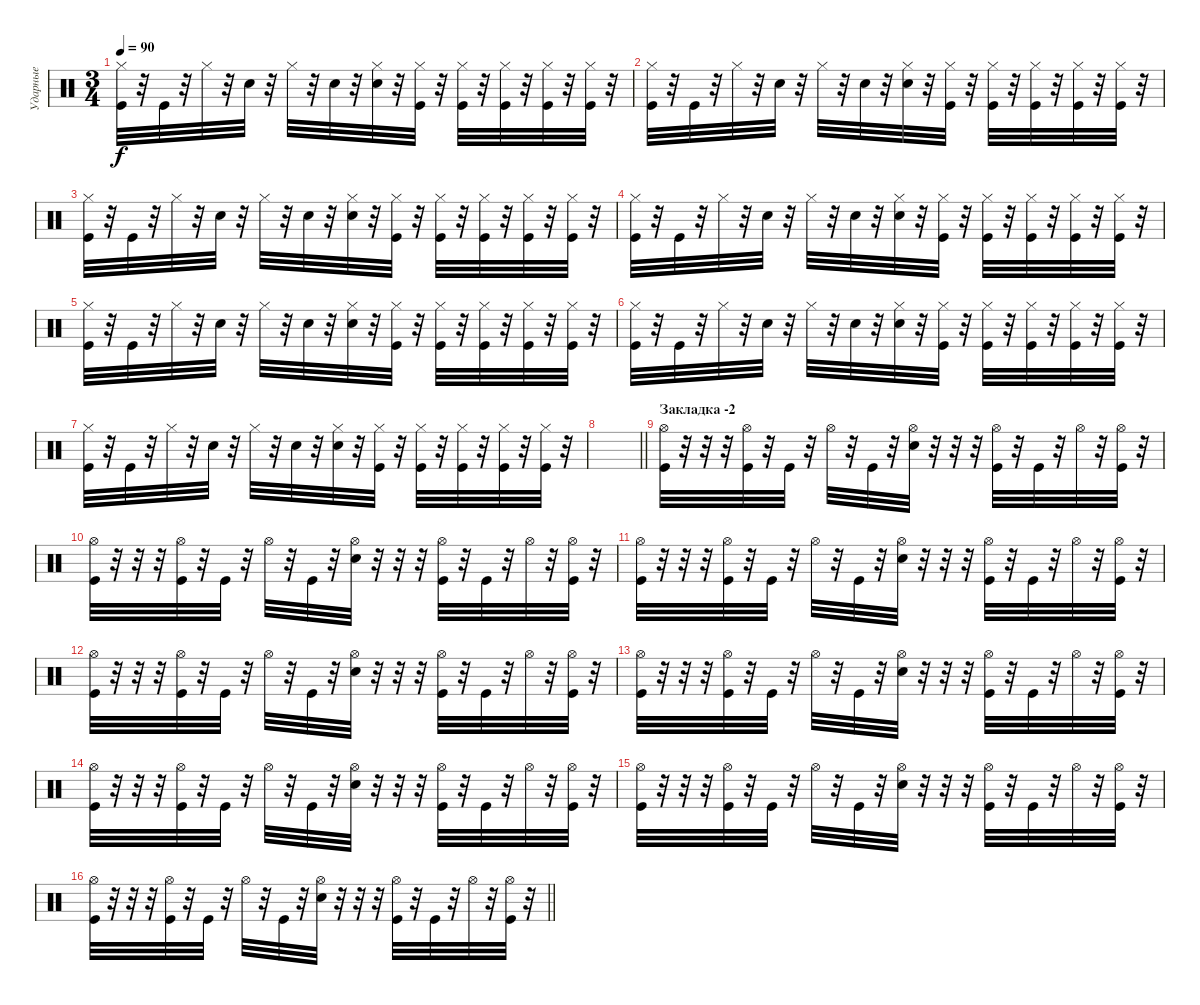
\track ("Ударные" "Ударные") {instrument percussion}
\staff {score}
\articulation defaults
\ts (3 4)
\tempo 90
\clef neutral
\ks c
("Hi-Hat (closed)" "Kick (hit)").32{dy f} r.32 "Kick (hit)".32 r.32 "Hi-Hat (closed)".32 r.32 "Snare (hit)".32 r.32 "Hi-Hat (closed)".32 r.32 "Snare (hit)".32 r.32 ("Hi-Hat (closed)" "Electric Snare (hit)").32 r.32 ("Hi-Hat (closed)" "Kick (hit)").32 r.32 ("Hi-Hat (closed)" "Kick (hit)").32 r.32 ("Hi-Hat (closed)" "Kick (hit)").32 r.32 ("Hi-Hat (closed)" "Kick (hit)").32 r.32 ("Hi-Hat (closed)" "Kick (hit)").32 r.32 |
("Hi-Hat (closed)" "Kick (hit)").32 r.32 "Kick (hit)".32 r.32 "Hi-Hat (closed)".32 r.32 "Snare (hit)".32 r.32 "Hi-Hat (closed)".32 r.32 "Snare (hit)".32 r.32 ("Hi-Hat (closed)" "Electric Snare (hit)").32 r.32 ("Hi-Hat (closed)" "Kick (hit)").32 r.32 ("Hi-Hat (closed)" "Kick (hit)").32 r.32 ("Hi-Hat (closed)" "Kick (hit)").32 r.32 ("Hi-Hat (closed)" "Kick (hit)").32 r.32 ("Hi-Hat (closed)" "Kick (hit)").32 r.32 |
("Hi-Hat (closed)" "Kick (hit)").32 r.32 "Kick (hit)".32 r.32 "Hi-Hat (closed)".32 r.32 "Snare (hit)".32 r.32 "Hi-Hat (closed)".32 r.32 "Snare (hit)".32 r.32 ("Hi-Hat (closed)" "Electric Snare (hit)").32 r.32 ("Hi-Hat (closed)" "Kick (hit)").32 r.32 ("Hi-Hat (closed)" "Kick (hit)").32 r.32 ("Hi-Hat (closed)" "Kick (hit)").32 r.32 ("Hi-Hat (closed)" "Kick (hit)").32 r.32 ("Hi-Hat (closed)" "Kick (hit)").32 r.32 |
("Hi-Hat (closed)" "Kick (hit)").32 r.32 "Kick (hit)".32 r.32 "Hi-Hat (closed)".32 r.32 "Snare (hit)".32 r.32 "Hi-Hat (closed)".32 r.32 "Snare (hit)".32 r.32 ("Hi-Hat (closed)" "Electric Snare (hit)").32 r.32 ("Hi-Hat (closed)" "Kick (hit)").32 r.32 ("Hi-Hat (closed)" "Kick (hit)").32 r.32 ("Hi-Hat (closed)" "Kick (hit)").32 r.32 ("Hi-Hat (closed)" "Kick (hit)").32 r.32 ("Hi-Hat (closed)" "Kick (hit)").32 r.32 |
("Hi-Hat (closed)" "Kick (hit)").32 r.32 "Kick (hit)".32 r.32 "Hi-Hat (closed)".32 r.32 "Snare (hit)".32 r.32 "Hi-Hat (closed)".32 r.32 "Snare (hit)".32 r.32 ("Hi-Hat (closed)" "Electric Snare (hit)").32 r.32 ("Hi-Hat (closed)" "Kick (hit)").32 r.32 ("Hi-Hat (closed)" "Kick (hit)").32 r.32 ("Hi-Hat (closed)" "Kick (hit)").32 r.32 ("Hi-Hat (closed)" "Kick (hit)").32 r.32 ("Hi-Hat (closed)" "Kick (hit)").32 r.32 |
("Hi-Hat (closed)" "Kick (hit)").32 r.32 "Kick (hit)".32 r.32 "Hi-Hat (closed)".32 r.32 "Snare (hit)".32 r.32 "Hi-Hat (closed)".32 r.32 "Snare (hit)".32 r.32 ("Hi-Hat (closed)" "Electric Snare (hit)").32 r.32 ("Hi-Hat (closed)" "Kick (hit)").32 r.32 ("Hi-Hat (closed)" "Kick (hit)").32 r.32 ("Hi-Hat (closed)" "Kick (hit)").32 r.32 ("Hi-Hat (closed)" "Kick (hit)").32 r.32 ("Hi-Hat (closed)" "Kick (hit)").32 r.32 |
("Hi-Hat (closed)" "Kick (hit)").32 r.32 "Kick (hit)".32 r.32 "Hi-Hat (closed)".32 r.32 "Snare (hit)".32 r.32 "Hi-Hat (closed)".32 r.32 "Snare (hit)".32 r.32 ("Hi-Hat (closed)" "Electric Snare (hit)").32 r.32 ("Hi-Hat (closed)" "Kick (hit)").32 r.32 ("Hi-Hat (closed)" "Kick (hit)").32 r.32 ("Hi-Hat (closed)" "Kick (hit)").32 r.32 ("Hi-Hat (closed)" "Kick (hit)").32 r.32 ("Hi-Hat (closed)" "Kick (hit)").32 r.32 |
\barLineRight lightlight
|
\section ("" "Закладка -2")
("Hi-Hat (open)" "Kick (hit)").32 r.32 r.32 r.32 ("Hi-Hat (open)" "Kick (hit)").32 r.32 "Kick (hit)".32 r.32 "Hi-Hat (open)".32 r.32 "Kick (hit)".32 r.32 ("Hi-Hat (open)" "Electric Snare (hit)").32 r.32 r.32 r.32 ("Hi-Hat (open)" "Kick (hit)").32 r.32 "Kick (hit)".32 r.32 "Hi-Hat (open)".32 r.32 ("Hi-Hat (open)" "Kick (hit)").32 r.32 |
("Hi-Hat (open)" "Kick (hit)").32 r.32 r.32 r.32 ("Hi-Hat (open)" "Kick (hit)").32 r.32 "Kick (hit)".32 r.32 "Hi-Hat (open)".32 r.32 "Kick (hit)".32 r.32 ("Hi-Hat (open)" "Electric Snare (hit)").32 r.32 r.32 r.32 ("Hi-Hat (open)" "Kick (hit)").32 r.32 "Kick (hit)".32 r.32 "Hi-Hat (open)".32 r.32 ("Hi-Hat (open)" "Kick (hit)").32 r.32 |
("Hi-Hat (open)" "Kick (hit)").32 r.32 r.32 r.32 ("Hi-Hat (open)" "Kick (hit)").32 r.32 "Kick (hit)".32 r.32 "Hi-Hat (open)".32 r.32 "Kick (hit)".32 r.32 ("Hi-Hat (open)" "Electric Snare (hit)").32 r.32 r.32 r.32 ("Hi-Hat (open)" "Kick (hit)").32 r.32 "Kick (hit)".32 r.32 "Hi-Hat (open)".32 r.32 ("Hi-Hat (open)" "Kick (hit)").32 r.32 |
("Hi-Hat (open)" "Kick (hit)").32 r.32 r.32 r.32 ("Hi-Hat (open)" "Kick (hit)").32 r.32 "Kick (hit)".32 r.32 "Hi-Hat (open)".32 r.32 "Kick (hit)".32 r.32 ("Hi-Hat (open)" "Electric Snare (hit)").32 r.32 r.32 r.32 ("Hi-Hat (open)" "Kick (hit)").32 r.32 "Kick (hit)".32 r.32 "Hi-Hat (open)".32 r.32 ("Hi-Hat (open)" "Kick (hit)").32 r.32 |
("Hi-Hat (open)" "Kick (hit)").32 r.32 r.32 r.32 ("Hi-Hat (open)" "Kick (hit)").32 r.32 "Kick (hit)".32 r.32 "Hi-Hat (open)".32 r.32 "Kick (hit)".32 r.32 ("Hi-Hat (open)" "Electric Snare (hit)").32 r.32 r.32 r.32 ("Hi-Hat (open)" "Kick (hit)").32 r.32 "Kick (hit)".32 r.32 "Hi-Hat (open)".32 r.32 ("Hi-Hat (open)" "Kick (hit)").32 r.32 |
("Hi-Hat (open)" "Kick (hit)").32 r.32 r.32 r.32 ("Hi-Hat (open)" "Kick (hit)").32 r.32 "Kick (hit)".32 r.32 "Hi-Hat (open)".32 r.32 "Kick (hit)".32 r.32 ("Hi-Hat (open)" "Electric Snare (hit)").32 r.32 r.32 r.32 ("Hi-Hat (open)" "Kick (hit)").32 r.32 "Kick (hit)".32 r.32 "Hi-Hat (open)".32 r.32 ("Hi-Hat (open)" "Kick (hit)").32 r.32 |
("Hi-Hat (open)" "Kick (hit)").32 r.32 r.32 r.32 ("Hi-Hat (open)" "Kick (hit)").32 r.32 "Kick (hit)".32 r.32 "Hi-Hat (open)".32 r.32 "Kick (hit)".32 r.32 ("Hi-Hat (open)" "Electric Snare (hit)").32 r.32 r.32 r.32 ("Hi-Hat (open)" "Kick (hit)").32 r.32 "Kick (hit)".32 r.32 "Hi-Hat (open)".32 r.32 ("Hi-Hat (open)" "Kick (hit)").32 r.32 |
\barLineRight lightlight
("Hi-Hat (open)" "Kick (hit)").32 r.32 r.32 r.32 ("Hi-Hat (open)" "Kick (hit)").32 r.32 "Kick (hit)".32 r.32 "Hi-Hat (open)".32 r.32 "Kick (hit)".32 r.32 ("Hi-Hat (open)" "Electric Snare (hit)").32 r.32 r.32 r.32 ("Hi-Hat (open)" "Kick (hit)").32 r.32 "Kick (hit)".32 r.32 "Hi-Hat (open)".32 r.32 ("Hi-Hat (open)" "Kick (hit)").32 r.32
